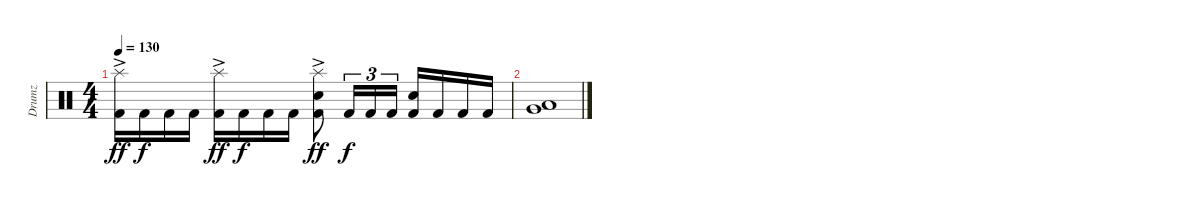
\track ("Drumz" "Drumz") {instrument percussion}
\staff {score}
\articulation defaults
\ts (4 4)
\tempo 130
\clef neutral
\ks c
("Splash (hit)"{ac} "Kick (hit) 2").16{dy ff} "Kick (hit) 2".16{dy f} "Kick (hit) 2".16 "Kick (hit) 2".16 ("Splash (hit)"{ac} "Kick (hit) 2").16{dy ff} "Kick (hit) 2".16{dy f} "Kick (hit) 2".16 "Kick (hit) 2".16 ("Splash (hit)"{ac} "Electric Snare (hit)" "Kick (hit) 2").8{dy ff} "Kick (hit) 2".16{tu (3 2) dy f} "Kick (hit) 2".16{tu (3 2)} "Kick (hit) 2".16{tu (3 2)} ("Electric Snare (hit)" "Kick (hit) 2").16 "Kick (hit) 2".16 "Kick (hit) 2".16 "Kick (hit) 2".16 |
("Low Tom (hit)" "Very Low Tom (hit)").1
